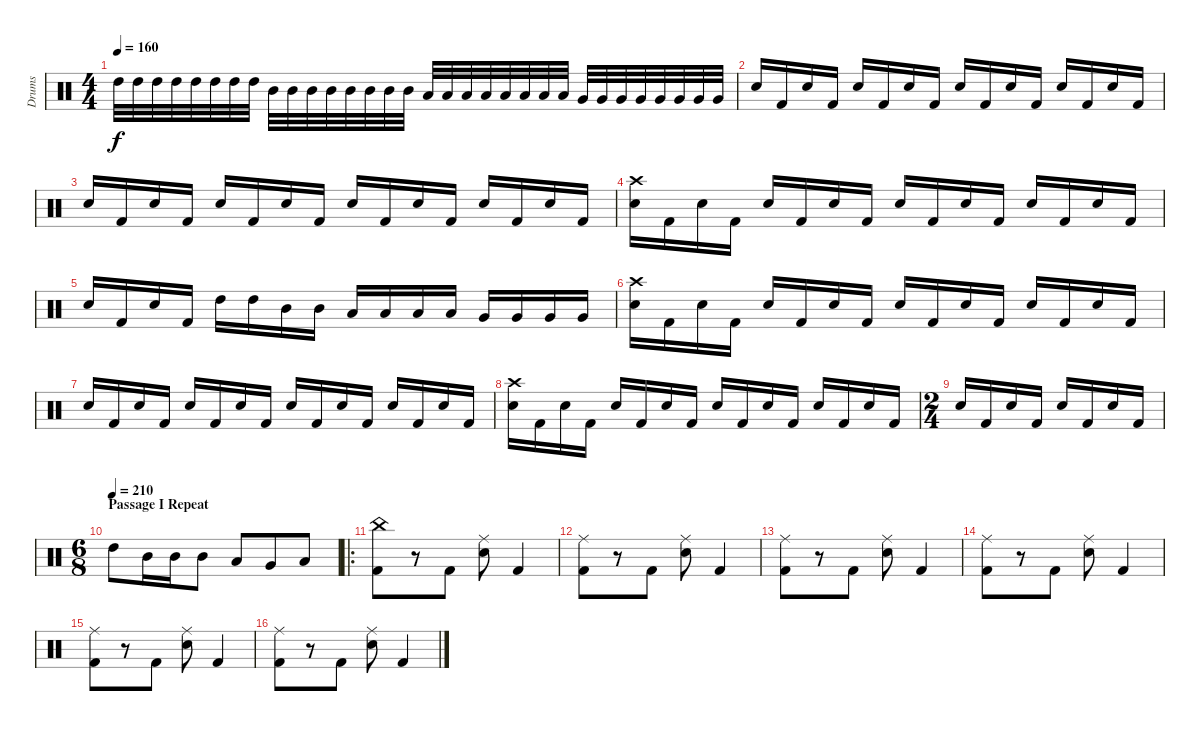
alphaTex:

\track ("Drums" "Drums") {instrument percussion}
\staff {score}
\articulation defaults
\ts (4 4)
\tempo 160
\clef neutral
\ks c "High Tom (hit)".32{dy f} "High Tom (hit)".32 "High Tom (hit)".32 "High Tom (hit)".32 "High Tom (hit)".32 "High Tom (hit)".32 "High Tom (hit)".32 "High Tom (hit)".32 "Mid Tom (hit)".32 "Mid Tom (hit)".32 "Mid Tom (hit)".32 "Mid Tom (hit)".32 "Mid Tom (hit)".32 "Mid Tom (hit)".32 "Mid Tom (hit)".32 "Mid Tom (hit)".32 "Low Tom (hit)".32 "Low Tom (hit)".32 "Low Tom (hit)".32 "Low Tom (hit)".32 "Low Tom (hit)".32 "Low Tom (hit)".32 "Low Tom (hit)".32 "Low Tom (hit)".32 "Very Low Tom (hit)".32 "Very Low Tom (hit)".32 "Very Low Tom (hit)".32 "Very Low Tom (hit)".32 "Very Low Tom (hit)".32 "Very Low Tom (hit)".32 "Very Low Tom (hit)".32 "Very Low Tom (hit)".32
|
"Electric Snare (hit)".16 "Kick (hit) 2".16 "Electric Snare (hit)".16 "Kick (hit) 2".16 "Electric Snare (hit)".16 "Kick (hit) 2".16 "Electric Snare (hit)".16 "Kick (hit) 2".16 "Electric Snare (hit)".16 "Kick (hit) 2".16 "Electric Snare (hit)".16 "Kick (hit) 2".16 "Electric Snare (hit)".16 "Kick (hit) 2".16 "Electric Snare (hit)".16 "Kick (hit) 2".16 |
"Electric Snare (hit)".16 "Kick (hit) 2".16 "Electric Snare (hit)".16 "Kick (hit) 2".16 "Electric Snare (hit)".16 "Kick (hit) 2".16 "Electric Snare (hit)".16 "Kick (hit) 2".16 "Electric Snare (hit)".16 "Kick (hit) 2".16 "Electric Snare (hit)".16 "Kick (hit) 2".16 "Electric Snare (hit)".16 "Kick (hit) 2".16 "Electric Snare (hit)".16 "Kick (hit) 2".16 |
("Crash high (hit)" "Electric Snare (hit)").16 "Kick (hit) 2".16 "Electric Snare (hit)".16 "Kick (hit) 2".16 "Electric Snare (hit)".16 "Kick (hit) 2".16 "Electric Snare (hit)".16 "Kick (hit) 2".16 "Electric Snare (hit)".16 "Kick (hit) 2".16 "Electric Snare (hit)".16 "Kick (hit) 2".16 "Electric Snare (hit)".16 "Kick (hit) 2".16 "Electric Snare (hit)".16 "Kick (hit) 2".16 |
"Electric Snare (hit)".16 "Kick (hit) 2".16 "Electric Snare (hit)".16 "Kick (hit) 2".16 "High Tom (hit)".16 "High Tom (hit)".16 "Mid Tom (hit)".16 "Mid Tom (hit)".16 "Low Tom (hit)".16 "Low Tom (hit)".16 "Low Tom (hit)".16 "Low Tom (hit)".16 "Very Low Tom (hit)".16 "Very Low Tom (hit)".16 "Very Low Tom (hit)".16 "Very Low Tom (hit)".16 |
("Crash high (hit)" "Electric Snare (hit)").16 "Kick (hit) 2".16 "Electric Snare (hit)".16 "Kick (hit) 2".16 "Electric Snare (hit)".16 "Kick (hit) 2".16 "Electric Snare (hit)".16 "Kick (hit) 2".16 "Electric Snare (hit)".16 "Kick (hit) 2".16 "Electric Snare (hit)".16 "Kick (hit) 2".16 "Electric Snare (hit)".16 "Kick (hit) 2".16 "Electric Snare (hit)".16 "Kick (hit) 2".16 |
"Electric Snare (hit)".16 "Kick (hit) 2".16 "Electric Snare (hit)".16 "Kick (hit) 2".16 "Electric Snare (hit)".16 "Kick (hit) 2".16 "Electric Snare (hit)".16 "Kick (hit) 2".16 "Electric Snare (hit)".16 "Kick (hit) 2".16 "Electric Snare (hit)".16 "Kick (hit) 2".16 "Electric Snare (hit)".16 "Kick (hit) 2".16 "Electric Snare (hit)".16 "Kick (hit) 2".16 |
("Crash high (hit)" "Electric Snare (hit)").16 "Kick (hit) 2".16 "Electric Snare (hit)".16 "Kick (hit) 2".16 "Electric Snare (hit)".16 "Kick (hit) 2".16 "Electric Snare (hit)".16 "Kick (hit) 2".16 "Electric Snare (hit)".16 "Kick (hit) 2".16 "Electric Snare (hit)".16 "Kick (hit) 2".16 "Electric Snare (hit)".16 "Kick (hit) 2".16 "Electric Snare (hit)".16 "Kick (hit) 2".16 |
\ts (2 4)
"Electric Snare (hit)".16 "Kick (hit) 2".16 "Electric Snare (hit)".16 "Kick (hit) 2".16 "Electric Snare (hit)".16 "Kick (hit) 2".16 "Electric Snare (hit)".16 "Kick (hit) 2".16 |
\ts (6 8)
\section ("" "Passage I Repeat")
\tempo (210)
"High Tom (hit)".8 "Mid Tom (hit)".16 "Mid Tom (hit)".16 "Mid Tom (hit)".8 "Low Tom (hit)".8 "Very Low Tom (hit)".8 "Low Floor Tom (hit)".8 |
\ro
("China (hit)" "Kick (hit) 2").8 r.8 "Kick (hit) 2".8 ("Ride (middle)" "Electric Snare (hit)").8 "Kick (hit) 2".4 |
("Ride (middle)" "Kick (hit) 2").8 r.8 "Kick (hit) 2".8 ("Ride (middle)" "Electric Snare (hit)").8 "Kick (hit) 2".4 |
("Ride (middle)" "Kick (hit) 2").8 r.8 "Kick (hit) 2".8 ("Ride (middle)" "Electric Snare (hit)").8 "Kick (hit) 2".4 |
("Ride (middle)" "Kick (hit) 2").8 r.8 "Kick (hit) 2".8 ("Ride (middle)" "Electric Snare (hit)").8 "Kick (hit) 2".4 |
("Ride (middle)" "Kick (hit) 2").8 r.8 "Kick (hit) 2".8 ("Ride (middle)" "Electric Snare (hit)").8 "Kick (hit) 2".4 |
("Ride (middle)" "Kick (hit) 2").8 r.8 "Kick (hit) 2".8 ("Ride (middle)" "Electric Snare (hit)").8 "Kick (hit) 2".4
